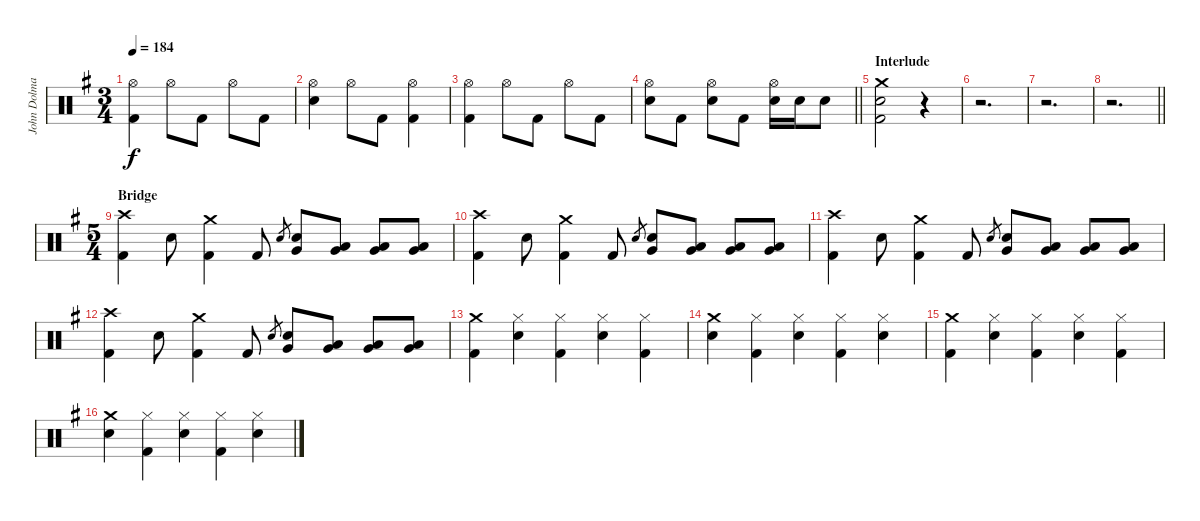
\track ("John Dolmayan [Drums]" "John Dolma") {instrument percussion}
\staff {score}
\articulation defaults
\ts (3 4)
\tempo 184
\clef neutral
\ks eminor
("Hi-Hat (open)" "Kick (hit) 2").4{dy f} "Hi-Hat (open)".8 "Kick (hit) 2".8 "Hi-Hat (open)".8 "Kick (hit) 2".8 |
("Hi-Hat (open)" "Electric Snare (hit)").4 "Hi-Hat (open)".8 "Kick (hit) 2".8 ("Hi-Hat (open)" "Kick (hit) 2").4 |
("Hi-Hat (open)" "Kick (hit) 2").4 "Hi-Hat (open)".8 "Kick (hit) 2".8 "Hi-Hat (open)".8 "Kick (hit) 2".8 |
\barLineRight lightlight
("Hi-Hat (open)" "Electric Snare (hit)").8 "Kick (hit) 2".8 ("Hi-Hat (open)" "Electric Snare (hit)").8 "Kick (hit) 2".8 ("Hi-Hat (open)" "Electric Snare (hit)").16 "Electric Snare (hit)".16 "Electric Snare (hit)".8 |
\section ("" "Interlude")
("Crash medium (hit)" "Electric Snare (hit)" "Kick (hit) 2").2 r.4 |
r.2{d} |
r.2{d} |
\barLineRight lightlight
r.2{d} |
\ts (5 4)
\section ("" "Bridge")
("Crash high (hit)" "Kick (hit) 2").4 "Electric Snare (hit)".8 ("Crash medium (hit)" "Kick (hit) 2").4 "Kick (hit) 2".8 "Electric Snare (hit)".8{gr} ("Very Low Tom (hit)" "Electric Snare (hit)").8 ("Low Tom (hit)" "Very Low Tom (hit)").8 ("Very Low Tom (hit)" "Low Floor Tom (hit)").8 ("Very Low Tom (hit)" "Low Floor Tom (hit)").8 |
("Crash high (hit)" "Kick (hit) 2").4 "Electric Snare (hit)".8 ("Crash medium (hit)" "Kick (hit) 2").4 "Kick (hit) 2".8 "Electric Snare (hit)".8{gr} ("Very Low Tom (hit)" "Electric Snare (hit)").8 ("Low Tom (hit)" "Very Low Tom (hit)").8 ("Very Low Tom (hit)" "Low Floor Tom (hit)").8 ("Very Low Tom (hit)" "Low Floor Tom (hit)").8 |
("Crash high (hit)" "Kick (hit) 2").4 "Electric Snare (hit)".8 ("Crash medium (hit)" "Kick (hit) 2").4 "Kick (hit) 2".8 "Electric Snare (hit)".8{gr} ("Very Low Tom (hit)" "Electric Snare (hit)").8 ("Low Tom (hit)" "Very Low Tom (hit)").8 ("Very Low Tom (hit)" "Low Floor Tom (hit)").8 ("Very Low Tom (hit)" "Low Floor Tom (hit)").8 |
("Crash high (hit)" "Kick (hit) 2").4 "Electric Snare (hit)".8 ("Crash medium (hit)" "Kick (hit) 2").4 "Kick (hit) 2".8 "Electric Snare (hit)".8{gr} ("Very Low Tom (hit)" "Electric Snare (hit)").8 ("Low Tom (hit)" "Very Low Tom (hit)").8 ("Very Low Tom (hit)" "Low Floor Tom (hit)").8 ("Very Low Tom (hit)" "Low Floor Tom (hit)").8 |
("Crash medium (hit)" "Kick (hit) 2").4 ("Hi-Hat (closed)" "Electric Snare (hit)").4 ("Hi-Hat (closed)" "Kick (hit) 2").4 ("Hi-Hat (closed)" "Electric Snare (hit)").4 ("Hi-Hat (closed)" "Kick (hit) 2").4 |
("Crash medium (hit)" "Electric Snare (hit)").4 ("Hi-Hat (closed)" "Kick (hit) 2").4 ("Hi-Hat (closed)" "Electric Snare (hit)").4 ("Hi-Hat (closed)" "Kick (hit) 2").4 ("Hi-Hat (closed)" "Electric Snare (hit)").4 |
("Crash medium (hit)" "Kick (hit) 2").4 ("Hi-Hat (closed)" "Electric Snare (hit)").4 ("Hi-Hat (closed)" "Kick (hit) 2").4 ("Hi-Hat (closed)" "Electric Snare (hit)").4 ("Hi-Hat (closed)" "Kick (hit) 2").4 |
("Crash medium (hit)" "Electric Snare (hit)").4 ("Hi-Hat (closed)" "Kick (hit) 2").4 ("Hi-Hat (closed)" "Electric Snare (hit)").4 ("Hi-Hat (closed)" "Kick (hit) 2").4 ("Hi-Hat (closed)" "Electric Snare (hit)").4
